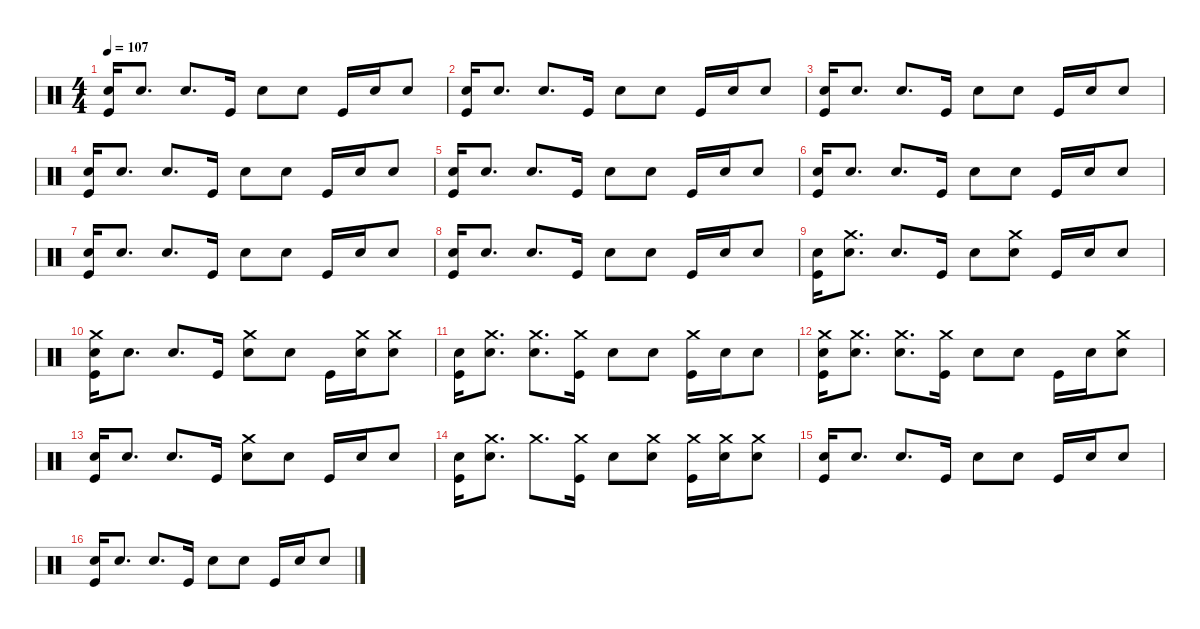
\defaultSystemsLayout 4
\hideDynamics
\bracketExtendMode nobrackets
\singleTrackTrackNamePolicy hidden
\multiTrackTrackNamePolicy hidden
\firstSystemTrackNameMode fullname
\firstSystemTrackNameOrientation horizontal
\otherSystemsTrackNameOrientation horizontal
\track ("Mitch" "drm.") {instrument percussion}
\staff {score}
\articulation defaults
\ts (4 4)
\tempo 107
\clef neutral
\ks c
("Snare (hit) 2" "Kick (hit)").16{dy f beam Up} "Snare (hit) 2".8{d beam Up} "Snare (hit) 2".8{d beam Up} "Kick (hit)".16{beam Up} "Snare (hit) 2".8{beam Down} "Snare (hit) 2".8{beam Down} "Kick (hit)".16{beam Up} "Snare (hit) 2".16{beam Up} "Snare (hit) 2".8{beam Up} |
("Snare (hit) 2" "Kick (hit)").16{beam Up} "Snare (hit) 2".8{d beam Up} "Snare (hit) 2".8{d beam Up} "Kick (hit)".16{beam Up} "Snare (hit) 2".8{beam Down} "Snare (hit) 2".8{beam Down} "Kick (hit)".16{beam Up} "Snare (hit) 2".16{beam Up} "Snare (hit) 2".8{beam Up} |
("Snare (hit) 2" "Kick (hit)").16{beam Up} "Snare (hit) 2".8{d beam Up} "Snare (hit) 2".8{d beam Up} "Kick (hit)".16{beam Up} "Snare (hit) 2".8{beam Down} "Snare (hit) 2".8{beam Down} "Kick (hit)".16{beam Up} "Snare (hit) 2".16{beam Up} "Snare (hit) 2".8{beam Up} |
("Snare (hit) 2" "Kick (hit)").16{beam Up} "Snare (hit) 2".8{d beam Up} "Snare (hit) 2".8{d beam Up} "Kick (hit)".16{beam Up} "Snare (hit) 2".8{beam Down} "Snare (hit) 2".8{beam Down} "Kick (hit)".16{beam Up} "Snare (hit) 2".16{beam Up} "Snare (hit) 2".8{beam Up} |
("Snare (hit) 2" "Kick (hit)").16{beam Up} "Snare (hit) 2".8{d beam Up} "Snare (hit) 2".8{d beam Up} "Kick (hit)".16{beam Up} "Snare (hit) 2".8{beam Down} "Snare (hit) 2".8{beam Down} "Kick (hit)".16{beam Up} "Snare (hit) 2".16{beam Up} "Snare (hit) 2".8{beam Up} |
("Snare (hit) 2" "Kick (hit)").16{beam Up} "Snare (hit) 2".8{d beam Up} "Snare (hit) 2".8{d beam Up} "Kick (hit)".16{beam Up} "Snare (hit) 2".8{beam Down} "Snare (hit) 2".8{beam Down} "Kick (hit)".16{beam Up} "Snare (hit) 2".16{beam Up} "Snare (hit) 2".8{beam Up} |
("Snare (hit) 2" "Kick (hit)").16{beam Up} "Snare (hit) 2".8{d beam Up} "Snare (hit) 2".8{d beam Up} "Kick (hit)".16{beam Up} "Snare (hit) 2".8{beam Down} "Snare (hit) 2".8{beam Down} "Kick (hit)".16{beam Up} "Snare (hit) 2".16{beam Up} "Snare (hit) 2".8{beam Up} |
("Snare (hit) 2" "Kick (hit)").16{beam Up} "Snare (hit) 2".8{d beam Up} "Snare (hit) 2".8{d beam Up} "Kick (hit)".16{beam Up} "Snare (hit) 2".8{beam Down} "Snare (hit) 2".8{beam Down} "Kick (hit)".16{beam Up} "Snare (hit) 2".16{beam Up} "Snare (hit) 2".8{beam Up} |
("Snare (hit) 2" "Kick (hit)").16{beam Down} ("Crash medium (hit)" "Snare (hit) 2").8{d beam Down} "Snare (hit) 2".8{d beam Up} "Kick (hit)".16{beam Up} "Snare (hit) 2".8{beam Down} ("Crash medium (hit)" "Snare (hit) 2").8{beam Down} "Kick (hit)".16{beam Up} "Snare (hit) 2".16{beam Up} "Snare (hit) 2".8{beam Up} |
("Crash medium (hit)" "Snare (hit) 2" "Kick (hit)").16{beam Down} "Snare (hit) 2".8{d beam Down} "Snare (hit) 2".8{d beam Up} "Kick (hit)".16{beam Up} ("Crash medium (hit)" "Snare (hit) 2").8{beam Down} "Snare (hit) 2".8{beam Down} "Kick (hit)".16{beam Down} ("Crash medium (hit)" "Snare (hit) 2").16{beam Down} ("Crash medium (hit)" "Snare (hit) 2").8{beam Down} |
("Snare (hit) 2" "Kick (hit)").16{beam Down} ("Crash medium (hit)" "Snare (hit) 2").8{d beam Down} ("Crash medium (hit)" "Snare (hit) 2").8{d beam Down} ("Crash medium (hit)" "Kick (hit)").16{beam Down} "Snare (hit) 2".8{beam Down} "Snare (hit) 2".8{beam Down} ("Crash medium (hit)" "Kick (hit)").16{beam Down} "Snare (hit) 2".16{beam Down} "Snare (hit) 2".8{beam Down} |
("Crash medium (hit)" "Snare (hit) 2" "Kick (hit)").16{beam Down} ("Crash medium (hit)" "Snare (hit) 2").8{d beam Down} ("Crash medium (hit)" "Snare (hit) 2").8{d beam Down} ("Crash medium (hit)" "Kick (hit)").16{beam Down} "Snare (hit) 2".8{beam Down} "Snare (hit) 2".8{beam Down} "Kick (hit)".16{beam Down} "Snare (hit) 2".16{beam Down} ("Crash medium (hit)" "Snare (hit) 2").8{beam Down} |
("Snare (hit) 2" "Kick (hit)").16{beam Up} "Snare (hit) 2".8{d beam Up} "Snare (hit) 2".8{d beam Up} "Kick (hit)".16{beam Up} ("Crash medium (hit)" "Snare (hit) 2").8{beam Down} "Snare (hit) 2".8{beam Down} "Kick (hit)".16{beam Up} "Snare (hit) 2".16{beam Up} "Snare (hit) 2".8{beam Up} |
("Snare (hit) 2" "Kick (hit)").16{beam Down} ("Crash medium (hit)" "Snare (hit) 2").8{d beam Down} "Crash medium (hit)".8{d beam Down} ("Crash medium (hit)" "Kick (hit)").16{beam Down} "Snare (hit) 2".8{beam Down} ("Crash medium (hit)" "Snare (hit) 2").8{beam Down} ("Crash medium (hit)" "Kick (hit)").16{beam Down} ("Crash medium (hit)" "Snare (hit) 2").16{beam Down} ("Crash medium (hit)" "Snare (hit) 2").8{beam Down} |
("Snare (hit) 2" "Kick (hit)").16{beam Up} "Snare (hit) 2".8{d beam Up} "Snare (hit) 2".8{d beam Up} "Kick (hit)".16{beam Up} "Snare (hit) 2".8{beam Down} "Snare (hit) 2".8{beam Down} "Kick (hit)".16{beam Up} "Snare (hit) 2".16{beam Up} "Snare (hit) 2".8{beam Up} |
("Snare (hit) 2" "Kick (hit)").16{beam Up} "Snare (hit) 2".8{d beam Up} "Snare (hit) 2".8{d beam Up} "Kick (hit)".16{beam Up} "Snare (hit) 2".8{beam Down} "Snare (hit) 2".8{beam Down} "Kick (hit)".16{beam Up} "Snare (hit) 2".16{beam Up} "Snare (hit) 2".8{beam Up}
